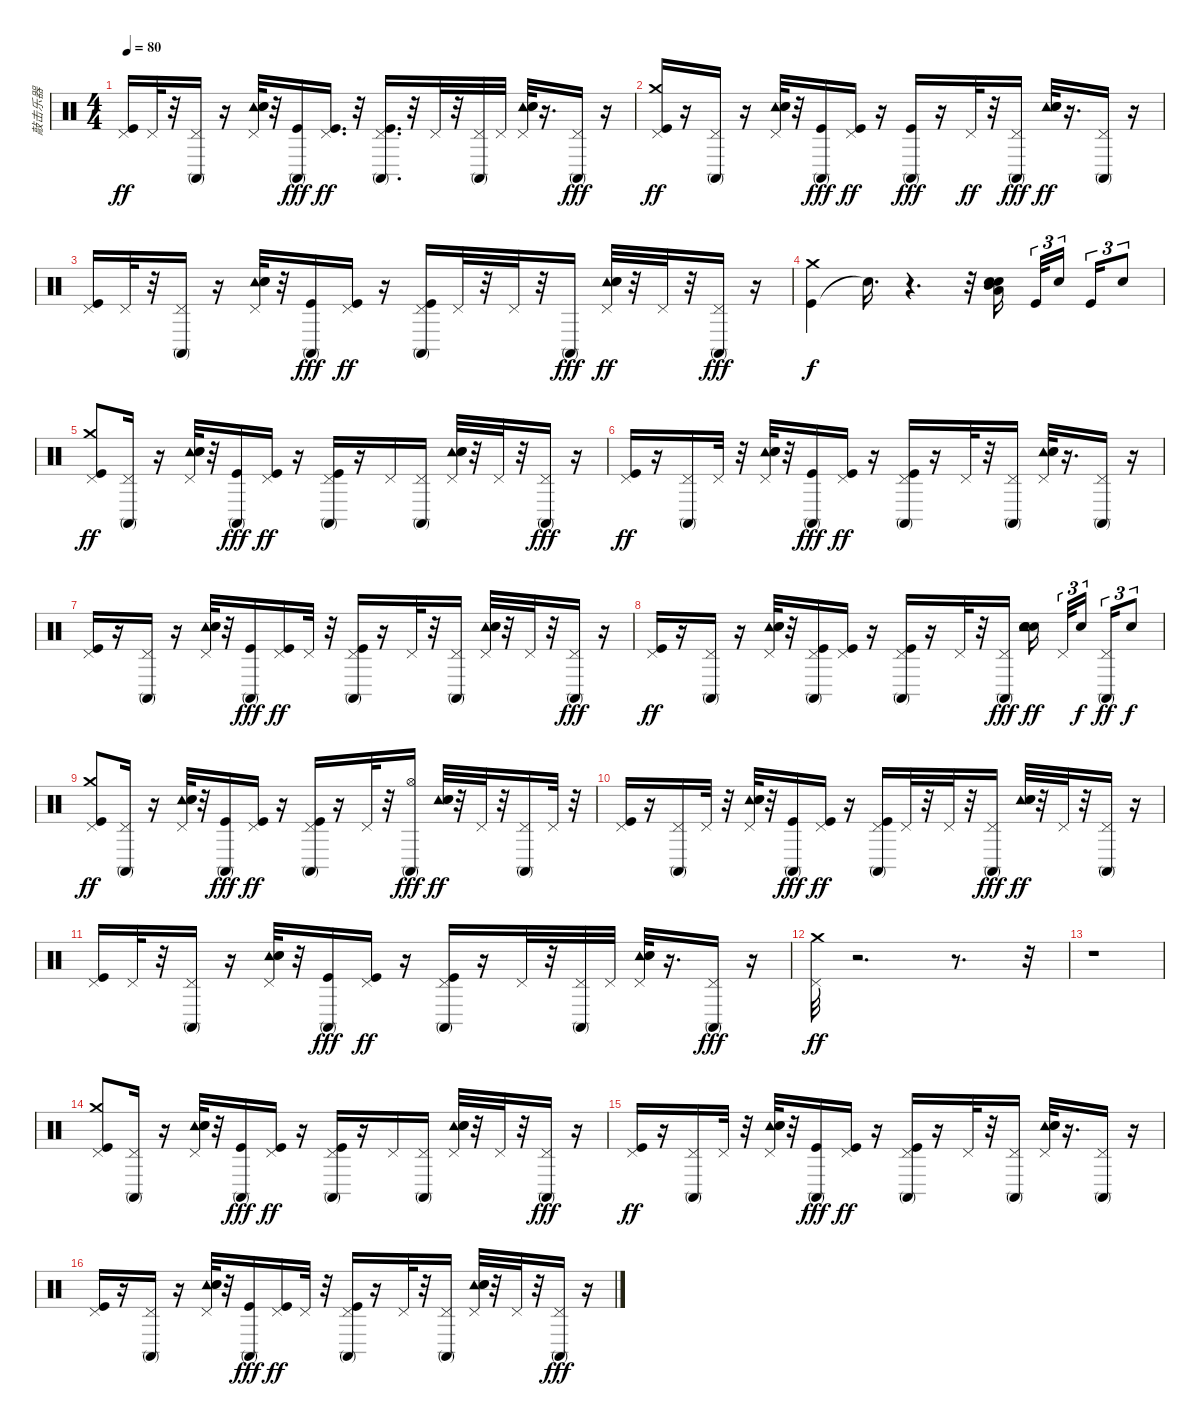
\track ("敲击乐器" "敲击乐器") {instrument percussion}
\staff {score}
\articulation defaults
\ts (4 4)
\tempo 80
\clef neutral
\ks c
("Kick (hit)" "Pedal Hi-Hat (hit)").16{dy ff} "Pedal Hi-Hat (hit)".32 r.32 ("Conga high (mute)" "Pedal Hi-Hat (hit)").16 r.16 ("Pedal Hi-Hat (hit)" "Tambourine (hit)" "Hand Clap (hit)" "Electric Snare (hit)").32 r.32 ("Conga high (mute)" "Kick (hit)").16{dy fff} ("Kick (hit)" "Pedal Hi-Hat (hit)").16{d dy ff} r.32 ("Conga high (mute)" "Kick (hit)" "Pedal Hi-Hat (hit)").16{d} r.32 "Pedal Hi-Hat (hit)".32 r.32 ("Conga high (mute)" "Pedal Hi-Hat (hit)").32 "Pedal Hi-Hat (hit)".32 ("Pedal Hi-Hat (hit)" "Tambourine (hit)" "Hand Clap (hit)" "Electric Snare (hit)").32 r.16{d} ("Conga high (mute)" "Pedal Hi-Hat (hit)").16{dy fff} r.16 |
("Kick (hit)" "Crash medium (hit)" "Pedal Hi-Hat (hit)").16{dy ff} r.16 ("Conga high (mute)" "Pedal Hi-Hat (hit)").16 r.16 ("Pedal Hi-Hat (hit)" "Tambourine (hit)" "Hand Clap (hit)" "Electric Snare (hit)").32 r.32 ("Conga high (mute)" "Kick (hit)").16{dy fff} ("Kick (hit)" "Pedal Hi-Hat (hit)").16{dy ff} r.16 ("Conga high (mute)" "Kick (hit)").16{dy fff} r.16 "Pedal Hi-Hat (hit)".32{dy ff} r.32 ("Conga high (mute)" "Pedal Hi-Hat (hit)").16{dy fff} ("Tambourine (hit)" "Hand Clap (hit)" "Electric Snare (hit)").32{dy ff} r.16{d} ("Conga high (mute)" "Pedal Hi-Hat (hit)").16 r.16 |
("Kick (hit)" "Pedal Hi-Hat (hit)").16 "Pedal Hi-Hat (hit)".32 r.32 ("Conga high (mute)" "Pedal Hi-Hat (hit)").16 r.16 ("Pedal Hi-Hat (hit)" "Tambourine (hit)" "Hand Clap (hit)" "Electric Snare (hit)").32 r.32 ("Conga high (mute)" "Kick (hit)").16{dy fff} ("Kick (hit)" "Pedal Hi-Hat (hit)").16{dy ff} r.16 ("Conga high (mute)" "Kick (hit)" "Pedal Hi-Hat (hit)").16 "Pedal Hi-Hat (hit)".32 r.32 "Pedal Hi-Hat (hit)".32 r.32 "Conga high (mute)".16{dy fff} ("Pedal Hi-Hat (hit)" "Tambourine (hit)" "Hand Clap (hit)" "Electric Snare (hit)").32{dy ff} r.32 "Pedal Hi-Hat (hit)".32 r.32 ("Conga high (mute)" "Pedal Hi-Hat (hit)").16{dy fff} r.16 |
("Kick (hit)" "Crash medium (hit)").4{dy f} "Snare (hit)"{t}.16{d} r.4{d} r.32 ("Electric Snare (hit)" "Mid Tom (hit)" "Low Tom (hit)" "Hand Clap (hit)").16{beam splitsecondary} "Kick (hit)".32{tu (3 2)} "Hand Clap (hit)".16{tu (3 2) beam splitsecondary} "Kick (hit)".16{tu (3 2)} "Hand Clap (hit)".8{tu (3 2)} |
("Kick (hit)" "Crash medium (hit)" "Pedal Hi-Hat (hit)").8{dy ff} ("Conga high (mute)" "Pedal Hi-Hat (hit)").16 r.16 ("Pedal Hi-Hat (hit)" "Tambourine (hit)" "Hand Clap (hit)" "Electric Snare (hit)").32 r.32 ("Conga high (mute)" "Kick (hit)").16{dy fff} ("Kick (hit)" "Pedal Hi-Hat (hit)").16{dy ff} r.16 ("Conga high (mute)" "Kick (hit)" "Pedal Hi-Hat (hit)").16 r.16 "Pedal Hi-Hat (hit)".16 ("Conga high (mute)" "Pedal Hi-Hat (hit)").16 ("Pedal Hi-Hat (hit)" "Tambourine (hit)" "Hand Clap (hit)" "Electric Snare (hit)").32 r.32 "Pedal Hi-Hat (hit)".32 r.32 ("Conga high (mute)" "Pedal Hi-Hat (hit)").16{dy fff} r.16 |
("Kick (hit)" "Pedal Hi-Hat (hit)").16{dy ff} r.16 ("Conga high (mute)" "Pedal Hi-Hat (hit)").16 "Pedal Hi-Hat (hit)".32 r.32 ("Pedal Hi-Hat (hit)" "Tambourine (hit)" "Hand Clap (hit)" "Electric Snare (hit)").32 r.32 ("Conga high (mute)" "Kick (hit)").16{dy fff} ("Kick (hit)" "Pedal Hi-Hat (hit)").16{dy ff} r.16 ("Conga high (mute)" "Kick (hit)" "Pedal Hi-Hat (hit)").16 r.16 "Pedal Hi-Hat (hit)".32 r.32 ("Conga high (mute)" "Pedal Hi-Hat (hit)").16 ("Pedal Hi-Hat (hit)" "Tambourine (hit)" "Hand Clap (hit)" "Electric Snare (hit)").32 r.16{d} ("Conga high (mute)" "Pedal Hi-Hat (hit)").16 r.16 |
("Kick (hit)" "Pedal Hi-Hat (hit)").16 r.16 ("Conga high (mute)" "Pedal Hi-Hat (hit)").16 r.16 ("Pedal Hi-Hat (hit)" "Tambourine (hit)" "Hand Clap (hit)" "Electric Snare (hit)").32 r.32 ("Conga high (mute)" "Kick (hit)").16{dy fff} ("Kick (hit)" "Pedal Hi-Hat (hit)").16{dy ff} "Pedal Hi-Hat (hit)".32 r.32 ("Conga high (mute)" "Kick (hit)" "Pedal Hi-Hat (hit)").16 r.16 "Pedal Hi-Hat (hit)".32 r.32 ("Conga high (mute)" "Pedal Hi-Hat (hit)").16 ("Pedal Hi-Hat (hit)" "Tambourine (hit)" "Hand Clap (hit)" "Electric Snare (hit)").32 r.32 "Pedal Hi-Hat (hit)".32 r.32 ("Conga high (mute)" "Pedal Hi-Hat (hit)").16{dy fff} r.16 |
("Kick (hit)" "Pedal Hi-Hat (hit)").16{dy ff} r.16 ("Conga high (mute)" "Pedal Hi-Hat (hit)").16 r.16 ("Pedal Hi-Hat (hit)" "Tambourine (hit)" "Hand Clap (hit)" "Electric Snare (hit)").32 r.32 ("Conga high (mute)" "Kick (hit)" "Pedal Hi-Hat (hit)").16 ("Kick (hit)" "Pedal Hi-Hat (hit)").16 r.16 ("Conga high (mute)" "Kick (hit)" "Pedal Hi-Hat (hit)").16 r.16 "Pedal Hi-Hat (hit)".32 r.32 ("Conga high (mute)" "Pedal Hi-Hat (hit)").16{dy fff} ("Hand Clap (hit)" "Tambourine (hit)" "Hand Clap (hit)" "Electric Snare (hit)").16{dy ff beam splitsecondary} "Pedal Hi-Hat (hit)".32{tu (3 2)} "Hand Clap (hit)".16{tu (3 2) dy f beam splitsecondary} ("Conga high (mute)" "Pedal Hi-Hat (hit)").16{tu (3 2) dy ff} "Hand Clap (hit)".8{tu (3 2) dy f} |
("Kick (hit)" "Crash medium (hit)" "Pedal Hi-Hat (hit)").8{dy ff} ("Conga high (mute)" "Pedal Hi-Hat (hit)").16 r.16 ("Pedal Hi-Hat (hit)" "Tambourine (hit)" "Hand Clap (hit)" "Electric Snare (hit)").32 r.32 ("Conga high (mute)" "Kick (hit)").16{dy fff} ("Kick (hit)" "Pedal Hi-Hat (hit)").16{dy ff} r.16 ("Conga high (mute)" "Kick (hit)" "Pedal Hi-Hat (hit)").16 r.16 "Pedal Hi-Hat (hit)".32 r.32 ("Conga high (mute)" "Hi-Hat (open)").16{dy fff} ("Tambourine (hit)" "Hand Clap (hit)" "Electric Snare (hit)").32{dy ff} r.32 "Pedal Hi-Hat (hit)".32 r.32 ("Conga high (mute)" "Pedal Hi-Hat (hit)").16 "Pedal Hi-Hat (hit)".32 r.32 |
("Kick (hit)" "Pedal Hi-Hat (hit)").16 r.16 ("Conga high (mute)" "Pedal Hi-Hat (hit)").16 "Pedal Hi-Hat (hit)".32 r.32 ("Pedal Hi-Hat (hit)" "Tambourine (hit)" "Hand Clap (hit)" "Electric Snare (hit)").32 r.32 ("Conga high (mute)" "Kick (hit)").16{dy fff} ("Kick (hit)" "Pedal Hi-Hat (hit)").16{dy ff} r.16 ("Conga high (mute)" "Kick (hit)" "Pedal Hi-Hat (hit)").16 "Pedal Hi-Hat (hit)".32 r.32 "Pedal Hi-Hat (hit)".32 r.32 ("Conga high (mute)" "Pedal Hi-Hat (hit)").16{dy fff} ("Tambourine (hit)" "Hand Clap (hit)" "Electric Snare (hit)").32{dy ff} r.32 "Pedal Hi-Hat (hit)".32 r.32 ("Conga high (mute)" "Pedal Hi-Hat (hit)").16 r.16 |
("Kick (hit)" "Pedal Hi-Hat (hit)").16 "Pedal Hi-Hat (hit)".32 r.32 ("Conga high (mute)" "Pedal Hi-Hat (hit)").16 r.16 ("Pedal Hi-Hat (hit)" "Tambourine (hit)" "Hand Clap (hit)" "Electric Snare (hit)").32 r.32 ("Conga high (mute)" "Kick (hit)").16{dy fff} ("Kick (hit)" "Pedal Hi-Hat (hit)").16{dy ff} r.16 ("Conga high (mute)" "Kick (hit)" "Pedal Hi-Hat (hit)").16 r.16 "Pedal Hi-Hat (hit)".32 r.32 ("Conga high (mute)" "Pedal Hi-Hat (hit)").32 "Pedal Hi-Hat (hit)".32 ("Pedal Hi-Hat (hit)" "Tambourine (hit)" "Hand Clap (hit)" "Electric Snare (hit)").32 r.16{d} ("Conga high (mute)" "Pedal Hi-Hat (hit)").16{dy fff} r.16 |
("Crash medium (hit)" "Pedal Hi-Hat (hit)").32{dy ff} r.2{d} r.8{d} r.32 |
r.1 |
("Kick (hit)" "Crash medium (hit)" "Pedal Hi-Hat (hit)").8 ("Conga high (mute)" "Pedal Hi-Hat (hit)").16 r.16 ("Pedal Hi-Hat (hit)" "Tambourine (hit)" "Hand Clap (hit)" "Electric Snare (hit)").32 r.32 ("Conga high (mute)" "Kick (hit)").16{dy fff} ("Kick (hit)" "Pedal Hi-Hat (hit)").16{dy ff} r.16 ("Conga high (mute)" "Kick (hit)" "Pedal Hi-Hat (hit)").16 r.16 "Pedal Hi-Hat (hit)".16 ("Conga high (mute)" "Pedal Hi-Hat (hit)").16 ("Pedal Hi-Hat (hit)" "Tambourine (hit)" "Hand Clap (hit)" "Electric Snare (hit)").32 r.32 "Pedal Hi-Hat (hit)".32 r.32 ("Conga high (mute)" "Pedal Hi-Hat (hit)").16{dy fff} r.16 |
("Kick (hit)" "Pedal Hi-Hat (hit)").16{dy ff} r.16 ("Conga high (mute)" "Pedal Hi-Hat (hit)").16 "Pedal Hi-Hat (hit)".32 r.32 ("Pedal Hi-Hat (hit)" "Tambourine (hit)" "Hand Clap (hit)" "Electric Snare (hit)").32 r.32 ("Conga high (mute)" "Kick (hit)").16{dy fff} ("Kick (hit)" "Pedal Hi-Hat (hit)").16{dy ff} r.16 ("Conga high (mute)" "Kick (hit)" "Pedal Hi-Hat (hit)").16 r.16 "Pedal Hi-Hat (hit)".32 r.32 ("Conga high (mute)" "Pedal Hi-Hat (hit)").16 ("Pedal Hi-Hat (hit)" "Tambourine (hit)" "Hand Clap (hit)" "Electric Snare (hit)").32 r.16{d} ("Conga high (mute)" "Pedal Hi-Hat (hit)").16 r.16 |
("Kick (hit)" "Pedal Hi-Hat (hit)").16 r.16 ("Conga high (mute)" "Pedal Hi-Hat (hit)").16 r.16 ("Pedal Hi-Hat (hit)" "Tambourine (hit)" "Hand Clap (hit)" "Electric Snare (hit)").32 r.32 ("Conga high (mute)" "Kick (hit)").16{dy fff} ("Kick (hit)" "Pedal Hi-Hat (hit)").16{dy ff} "Pedal Hi-Hat (hit)".32 r.32 ("Conga high (mute)" "Kick (hit)" "Pedal Hi-Hat (hit)").16 r.16 "Pedal Hi-Hat (hit)".32 r.32 ("Conga high (mute)" "Pedal Hi-Hat (hit)").16 ("Pedal Hi-Hat (hit)" "Tambourine (hit)" "Hand Clap (hit)" "Electric Snare (hit)").32 r.32 "Pedal Hi-Hat (hit)".32 r.32 ("Conga high (mute)" "Pedal Hi-Hat (hit)").16{dy fff} r.16
